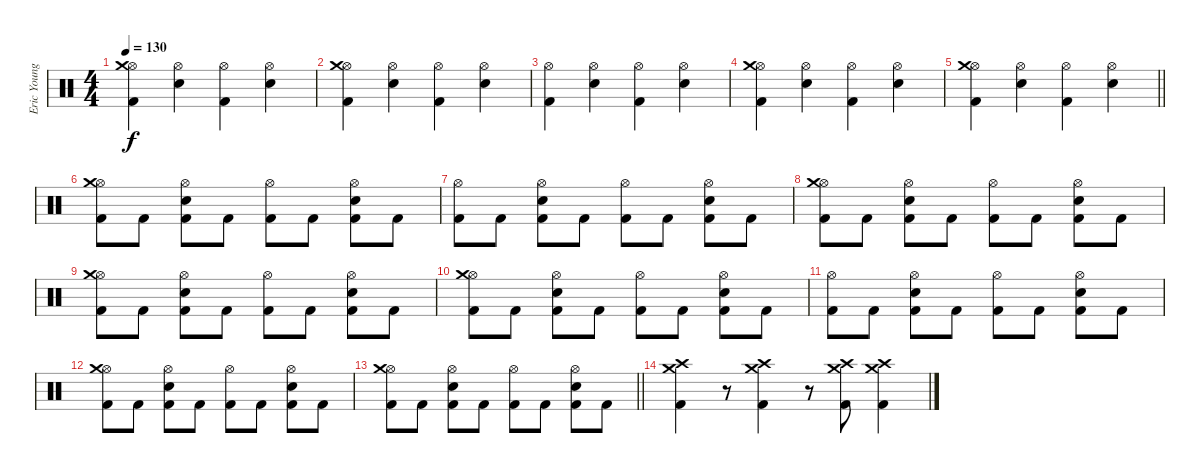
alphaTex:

\track ("Eric Young (Drums)" "Eric Young") {instrument percussion}
\staff {score}
\articulation defaults
\ts (4 4)
\tempo 130
\clef neutral
\ks c
("Hi-Hat (open)" "Kick (hit) 2" "Crash medium (hit)").4{dy f} ("Hi-Hat (open)" "Snare (hit) 2").4 ("Hi-Hat (open)" "Kick (hit) 2").4 ("Hi-Hat (open)" "Snare (hit) 2").4 |
("Hi-Hat (open)" "Kick (hit) 2" "Crash medium (hit)").4 ("Hi-Hat (open)" "Snare (hit) 2").4 ("Hi-Hat (open)" "Kick (hit) 2").4 ("Hi-Hat (open)" "Snare (hit) 2").4 |
("Hi-Hat (open)" "Kick (hit) 2").4 ("Hi-Hat (open)" "Snare (hit) 2").4 ("Hi-Hat (open)" "Kick (hit) 2").4 ("Hi-Hat (open)" "Snare (hit) 2").4 |
("Hi-Hat (open)" "Kick (hit) 2" "Crash medium (hit)").4 ("Hi-Hat (open)" "Snare (hit) 2").4 ("Hi-Hat (open)" "Kick (hit) 2").4 ("Hi-Hat (open)" "Snare (hit) 2").4 |
\barLineRight lightlight
("Hi-Hat (open)" "Kick (hit) 2" "Crash medium (hit)").4 ("Hi-Hat (open)" "Snare (hit) 2").4 ("Hi-Hat (open)" "Kick (hit) 2").4 ("Hi-Hat (open)" "Snare (hit) 2").4 |
("Hi-Hat (open)" "Kick (hit) 2" "Crash medium (hit)").8 "Kick (hit) 2".8 ("Hi-Hat (open)" "Kick (hit) 2" "Snare (hit) 2").8 "Kick (hit) 2".8 ("Hi-Hat (open)" "Kick (hit) 2").8 "Kick (hit) 2".8 ("Hi-Hat (open)" "Kick (hit) 2" "Snare (hit) 2").8 "Kick (hit) 2".8 |
("Hi-Hat (open)" "Kick (hit) 2").8 "Kick (hit) 2".8 ("Hi-Hat (open)" "Kick (hit) 2" "Snare (hit) 2").8 "Kick (hit) 2".8 ("Hi-Hat (open)" "Kick (hit) 2").8 "Kick (hit) 2".8 ("Hi-Hat (open)" "Kick (hit) 2" "Snare (hit) 2").8 "Kick (hit) 2".8 |
("Hi-Hat (open)" "Kick (hit) 2" "Crash medium (hit)").8 "Kick (hit) 2".8 ("Hi-Hat (open)" "Kick (hit) 2" "Snare (hit) 2").8 "Kick (hit) 2".8 ("Hi-Hat (open)" "Kick (hit) 2").8 "Kick (hit) 2".8 ("Hi-Hat (open)" "Kick (hit) 2" "Snare (hit) 2").8 "Kick (hit) 2".8 |
("Hi-Hat (open)" "Kick (hit) 2" "Crash medium (hit)").8 "Kick (hit) 2".8 ("Hi-Hat (open)" "Kick (hit) 2" "Snare (hit) 2").8 "Kick (hit) 2".8 ("Hi-Hat (open)" "Kick (hit) 2").8 "Kick (hit) 2".8 ("Hi-Hat (open)" "Kick (hit) 2" "Snare (hit) 2").8 "Kick (hit) 2".8 |
("Hi-Hat (open)" "Kick (hit) 2" "Crash medium (hit)").8 "Kick (hit) 2".8 ("Hi-Hat (open)" "Kick (hit) 2" "Snare (hit) 2").8 "Kick (hit) 2".8 ("Hi-Hat (open)" "Kick (hit) 2").8 "Kick (hit) 2".8 ("Hi-Hat (open)" "Kick (hit) 2" "Snare (hit) 2").8 "Kick (hit) 2".8 |
("Hi-Hat (open)" "Kick (hit) 2").8 "Kick (hit) 2".8 ("Hi-Hat (open)" "Kick (hit) 2" "Snare (hit) 2").8 "Kick (hit) 2".8 ("Hi-Hat (open)" "Kick (hit) 2").8 "Kick (hit) 2".8 ("Hi-Hat (open)" "Kick (hit) 2" "Snare (hit) 2").8 "Kick (hit) 2".8 |
("Hi-Hat (open)" "Kick (hit) 2" "Crash medium (hit)").8 "Kick (hit) 2".8 ("Hi-Hat (open)" "Kick (hit) 2" "Snare (hit) 2").8 "Kick (hit) 2".8 ("Hi-Hat (open)" "Kick (hit) 2").8 "Kick (hit) 2".8 ("Hi-Hat (open)" "Kick (hit) 2" "Snare (hit) 2").8 "Kick (hit) 2".8 |
\barLineRight lightlight
("Hi-Hat (open)" "Kick (hit) 2" "Crash medium (hit)").8 "Kick (hit) 2".8 ("Hi-Hat (open)" "Kick (hit) 2" "Snare (hit) 2").8 "Kick (hit) 2".8 ("Hi-Hat (open)" "Kick (hit) 2").8 "Kick (hit) 2".8 ("Hi-Hat (open)" "Kick (hit) 2" "Snare (hit) 2").8 "Kick (hit) 2".8 |
("Kick (hit) 2" "Crash high (hit)" "Crash medium (hit)").4 r.8 ("Kick (hit) 2" "Crash high (hit)" "Crash medium (hit)").4 r.8 ("Kick (hit) 2" "Crash high (hit)" "Crash medium (hit)").8 ("Kick (hit) 2" "Crash high (hit)" "Crash medium (hit)").4
